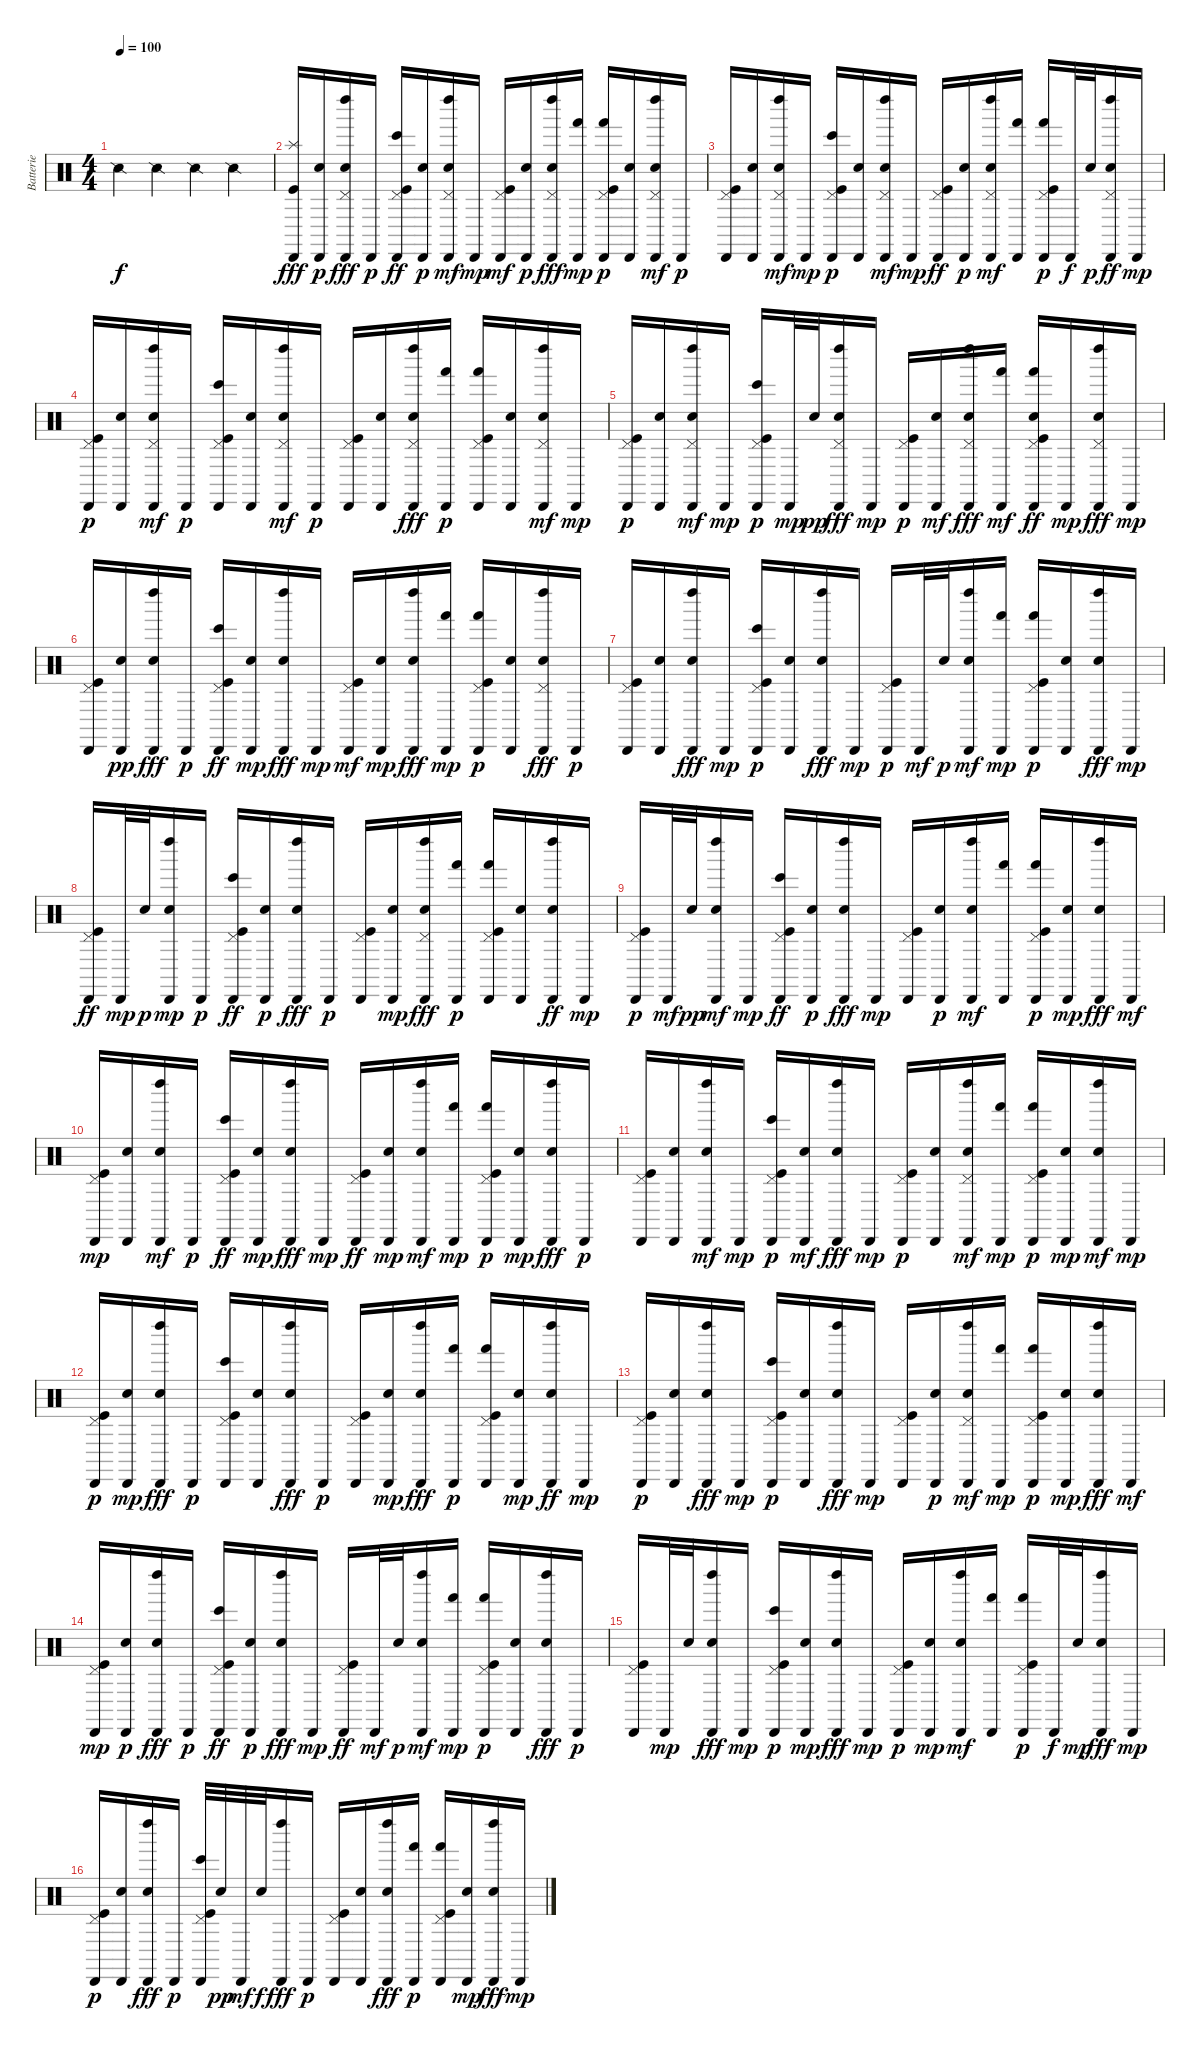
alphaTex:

\track ("Batterie" "Batterie") {instrument percussion}
\staff {score}
\articulation defaults
\ts (4 4)
\tempo 100
\clef neutral
\ks c "Snare (side stick) 2".4{dy f} "Snare (side stick) 2".4 "Snare (side stick) 2".4 "Snare (side stick) 2".4
|
("Kick (hit)" "Cabasa (hit)" "Splash (hit)").16{dy fff} ("Cabasa (hit)" "Electric Snare (hit)").16{dy p} ("Cabasa (hit)" "Pedal Hi-Hat (hit)" "Electric Snare (hit)" "Left Maraca (hit)").16{dy fff} "Cabasa (hit)".16{dy p} ("Cabasa (hit)" "Bongo High (hit)" "Kick (hit)" "Pedal Hi-Hat (hit)").16{dy ff} ("Cabasa (hit)" "Electric Snare (hit)").16{dy p} ("Cabasa (hit)" "Pedal Hi-Hat (hit)" "Left Maraca (hit)" "Electric Snare (hit)").16{dy mf} "Cabasa (hit)".16{dy mp} ("Cabasa (hit)" "Pedal Hi-Hat (hit)" "Kick (hit)").16{dy mf} ("Cabasa (hit)" "Electric Snare (hit)").16{dy p} ("Pedal Hi-Hat (hit)" "Cabasa (hit)" "Electric Snare (hit)" "Left Maraca (hit)").16{dy fff} ("Hand (hit)" "Cabasa (hit)").16{dy mp} ("Hand (hit)" "Kick (hit)" "Pedal Hi-Hat (hit)" "Cabasa (hit)").16{dy p} ("Cabasa (hit)" "Electric Snare (hit)").16 ("Pedal Hi-Hat (hit)" "Cabasa (hit)" "Left Maraca (hit)" "Electric Snare (hit)").16{dy mf} "Cabasa (hit)".16{dy p} |
("Cabasa (hit)" "Kick (hit)" "Pedal Hi-Hat (hit)").16 ("Cabasa (hit)" "Electric Snare (hit)").16 ("Pedal Hi-Hat (hit)" "Cabasa (hit)" "Left Maraca (hit)" "Electric Snare (hit)").16{dy mf} "Cabasa (hit)".16{dy mp} ("Pedal Hi-Hat (hit)" "Bongo High (hit)" "Kick (hit)" "Cabasa (hit)").16{dy p} ("Cabasa (hit)" "Electric Snare (hit)").16 ("Pedal Hi-Hat (hit)" "Cabasa (hit)" "Left Maraca (hit)" "Electric Snare (hit)").16{dy mf} "Cabasa (hit)".16{dy mp} ("Cabasa (hit)" "Kick (hit)" "Pedal Hi-Hat (hit)").16{dy ff} ("Cabasa (hit)" "Electric Snare (hit)").16{dy p} ("Cabasa (hit)" "Left Maraca (hit)" "Pedal Hi-Hat (hit)" "Electric Snare (hit)").16{dy mf} ("Cabasa (hit)" "Hand (hit)").16 ("Pedal Hi-Hat (hit)" "Kick (hit)" "Hand (hit)" "Cabasa (hit)").16{dy p} "Cabasa (hit)".32{dy f} "Electric Snare (hit)".32{dy p} ("Left Maraca (hit)" "Cabasa (hit)" "Pedal Hi-Hat (hit)" "Electric Snare (hit)").16{dy ff} "Cabasa (hit)".16{dy mp} |
("Kick (hit)" "Cabasa (hit)" "Pedal Hi-Hat (hit)").16{dy p} ("Cabasa (hit)" "Electric Snare (hit)").16 ("Left Maraca (hit)" "Cabasa (hit)" "Pedal Hi-Hat (hit)" "Electric Snare (hit)").16{dy mf} "Cabasa (hit)".16{dy p} ("Kick (hit)" "Bongo High (hit)" "Cabasa (hit)" "Pedal Hi-Hat (hit)").16 ("Cabasa (hit)" "Electric Snare (hit)").16 ("Cabasa (hit)" "Left Maraca (hit)" "Pedal Hi-Hat (hit)" "Electric Snare (hit)").16{dy mf} "Cabasa (hit)".16{dy p} ("Kick (hit)" "Pedal Hi-Hat (hit)" "Cabasa (hit)").16 ("Cabasa (hit)" "Electric Snare (hit)").16 ("Pedal Hi-Hat (hit)" "Left Maraca (hit)" "Cabasa (hit)" "Electric Snare (hit)").16{dy fff} ("Hand (hit)" "Cabasa (hit)").16{dy p} ("Hand (hit)" "Kick (hit)" "Pedal Hi-Hat (hit)" "Cabasa (hit)").16 ("Cabasa (hit)" "Electric Snare (hit)").16 ("Left Maraca (hit)" "Cabasa (hit)" "Electric Snare (hit)" "Pedal Hi-Hat (hit)").16{dy mf} "Cabasa (hit)".16{dy mp} |
("Kick (hit)" "Cabasa (hit)" "Pedal Hi-Hat (hit)").16{dy p} ("Cabasa (hit)" "Electric Snare (hit)").16 ("Electric Snare (hit)" "Left Maraca (hit)" "Cabasa (hit)" "Pedal Hi-Hat (hit)").16{dy mf} "Cabasa (hit)".16{dy mp} ("Kick (hit)" "Bongo High (hit)" "Cabasa (hit)" "Pedal Hi-Hat (hit)").16{dy p} "Cabasa (hit)".32{dy mp} "Electric Snare (hit)".32{dy pp} ("Left Maraca (hit)" "Pedal Hi-Hat (hit)" "Cabasa (hit)" "Electric Snare (hit)").16{dy fff} "Cabasa (hit)".16{dy mp} ("Kick (hit)" "Pedal Hi-Hat (hit)" "Cabasa (hit)").16{dy p} ("Cabasa (hit)" "Hand Clap (hit)").16{dy mf} ("Pedal Hi-Hat (hit)" "Cabasa (hit)" "Left Maraca (hit)" "Hand Clap (hit)").16{dy fff} ("Hand (hit)" "Cabasa (hit)").16{dy mf} ("Pedal Hi-Hat (hit)" "Kick (hit)" "Cabasa (hit)" "Electric Snare (hit)" "Hand (hit)").16{dy ff} "Cabasa (hit)".16{dy mp} ("Pedal Hi-Hat (hit)" "Electric Snare (hit)" "Left Maraca (hit)" "Cabasa (hit)").16{dy fff} "Cabasa (hit)".16{dy mp} |
("Pedal Hi-Hat (hit)" "Kick (hit)" "Cabasa (hit)").16 ("Cabasa (hit)" "Electric Snare (hit)").16{dy pp} ("Electric Snare (hit)" "Cabasa (hit)" "Left Maraca (hit)").16{dy fff} "Cabasa (hit)".16{dy p} ("Cabasa (hit)" "Pedal Hi-Hat (hit)" "Bongo High (hit)" "Kick (hit)").16{dy ff} ("Cabasa (hit)" "Electric Snare (hit)").16{dy mp} ("Cabasa (hit)" "Left Maraca (hit)" "Electric Snare (hit)").16{dy fff} "Cabasa (hit)".16{dy mp} ("Cabasa (hit)" "Pedal Hi-Hat (hit)" "Kick (hit)").16{dy mf} ("Cabasa (hit)" "Electric Snare (hit)").16{dy mp} ("Cabasa (hit)" "Electric Snare (hit)" "Left Maraca (hit)").16{dy fff} ("Hand (hit)" "Cabasa (hit)").16{dy mp} ("Hand (hit)" "Kick (hit)" "Pedal Hi-Hat (hit)" "Cabasa (hit)").16{dy p} ("Cabasa (hit)" "Electric Snare (hit)").16 ("Pedal Hi-Hat (hit)" "Cabasa (hit)" "Electric Snare (hit)" "Left Maraca (hit)").16{dy fff} "Cabasa (hit)".16{dy p} |
("Kick (hit)" "Cabasa (hit)" "Pedal Hi-Hat (hit)").16 ("Cabasa (hit)" "Electric Snare (hit)").16 ("Left Maraca (hit)" "Cabasa (hit)" "Electric Snare (hit)").16{dy fff} "Cabasa (hit)".16{dy mp} ("Cabasa (hit)" "Pedal Hi-Hat (hit)" "Kick (hit)" "Bongo High (hit)").16{dy p} ("Cabasa (hit)" "Electric Snare (hit)").16 ("Cabasa (hit)" "Electric Snare (hit)" "Left Maraca (hit)").16{dy fff} "Cabasa (hit)".16{dy mp} ("Cabasa (hit)" "Kick (hit)" "Pedal Hi-Hat (hit)").16{dy p} "Cabasa (hit)".32{dy mf} "Electric Snare (hit)".32{dy p} ("Cabasa (hit)" "Left Maraca (hit)" "Electric Snare (hit)").16{dy mf} ("Hand (hit)" "Cabasa (hit)").16{dy mp} ("Hand (hit)" "Pedal Hi-Hat (hit)" "Kick (hit)" "Cabasa (hit)").16{dy p} ("Cabasa (hit)" "Electric Snare (hit)").16 ("Cabasa (hit)" "Electric Snare (hit)" "Left Maraca (hit)").16{dy fff} "Cabasa (hit)".16{dy mp} |
("Cabasa (hit)" "Pedal Hi-Hat (hit)" "Kick (hit)").16{dy ff} "Cabasa (hit)".32{dy mp} "Electric Snare (hit)".32{dy p} ("Cabasa (hit)" "Left Maraca (hit)" "Electric Snare (hit)").16{dy mp} "Cabasa (hit)".16{dy p} ("Pedal Hi-Hat (hit)" "Kick (hit)" "Cabasa (hit)" "Bongo High (hit)").16{dy ff} ("Cabasa (hit)" "Electric Snare (hit)").16{dy p} ("Left Maraca (hit)" "Cabasa (hit)" "Electric Snare (hit)").16{dy fff} "Cabasa (hit)".16{dy p} ("Kick (hit)" "Pedal Hi-Hat (hit)" "Cabasa (hit)").16 ("Cabasa (hit)" "Electric Snare (hit)").16{dy mp} ("Left Maraca (hit)" "Pedal Hi-Hat (hit)" "Electric Snare (hit)" "Cabasa (hit)").16{dy fff} ("Hand (hit)" "Cabasa (hit)").16{dy p} ("Kick (hit)" "Pedal Hi-Hat (hit)" "Hand (hit)" "Cabasa (hit)").16 ("Cabasa (hit)" "Electric Snare (hit)").16 ("Left Maraca (hit)" "Cabasa (hit)" "Electric Snare (hit)").16{dy ff} "Cabasa (hit)".16{dy mp} |
("Pedal Hi-Hat (hit)" "Kick (hit)" "Cabasa (hit)").16{dy p} "Cabasa (hit)".32{dy mf} "Electric Snare (hit)".32{dy pp} ("Left Maraca (hit)" "Cabasa (hit)" "Electric Snare (hit)").16{dy mf} "Cabasa (hit)".16{dy mp} ("Kick (hit)" "Cabasa (hit)" "Pedal Hi-Hat (hit)" "Bongo High (hit)").16{dy ff} ("Cabasa (hit)" "Electric Snare (hit)").16{dy p} ("Left Maraca (hit)" "Cabasa (hit)" "Electric Snare (hit)").16{dy fff} "Cabasa (hit)".16{dy mp} ("Kick (hit)" "Pedal Hi-Hat (hit)" "Cabasa (hit)").16 ("Cabasa (hit)" "Electric Snare (hit)").16{dy p} ("Left Maraca (hit)" "Cabasa (hit)" "Electric Snare (hit)").16{dy mf} ("Cabasa (hit)" "Hand (hit)").16 ("Hand (hit)" "Kick (hit)" "Pedal Hi-Hat (hit)" "Cabasa (hit)").16{dy p} ("Cabasa (hit)" "Electric Snare (hit)").16{dy mp} ("Cabasa (hit)" "Left Maraca (hit)" "Electric Snare (hit)").16{dy fff} "Cabasa (hit)".16{dy mf} |
("Pedal Hi-Hat (hit)" "Kick (hit)" "Cabasa (hit)").16{dy mp} ("Electric Snare (hit)" "Cabasa (hit)").16 ("Left Maraca (hit)" "Cabasa (hit)" "Electric Snare (hit)").16{dy mf} "Cabasa (hit)".16{dy p} ("Pedal Hi-Hat (hit)" "Kick (hit)" "Cabasa (hit)" "Bongo High (hit)").16{dy ff} ("Cabasa (hit)" "Electric Snare (hit)").16{dy mp} ("Left Maraca (hit)" "Electric Snare (hit)" "Cabasa (hit)").16{dy fff} "Cabasa (hit)".16{dy mp} ("Kick (hit)" "Cabasa (hit)" "Pedal Hi-Hat (hit)").16{dy ff} ("Cabasa (hit)" "Electric Snare (hit)").16{dy mp} ("Left Maraca (hit)" "Cabasa (hit)" "Electric Snare (hit)").16{dy mf} ("Hand (hit)" "Cabasa (hit)").16{dy mp} ("Kick (hit)" "Pedal Hi-Hat (hit)" "Hand (hit)" "Cabasa (hit)").16{dy p} ("Cabasa (hit)" "Electric Snare (hit)").16{dy mp} ("Left Maraca (hit)" "Cabasa (hit)" "Electric Snare (hit)").16{dy fff} "Cabasa (hit)".16{dy p} |
("Pedal Hi-Hat (hit)" "Kick (hit)" "Cabasa (hit)").16 ("Cabasa (hit)" "Electric Snare (hit)").16 ("Cabasa (hit)" "Left Maraca (hit)" "Electric Snare (hit)").16{dy mf} "Cabasa (hit)".16{dy mp} ("Bongo High (hit)" "Cabasa (hit)" "Kick (hit)" "Pedal Hi-Hat (hit)").16{dy p} ("Electric Snare (hit)" "Cabasa (hit)").16{dy mf} ("Electric Snare (hit)" "Cabasa (hit)" "Left Maraca (hit)").16{dy fff} "Cabasa (hit)".16{dy mp} ("Cabasa (hit)" "Pedal Hi-Hat (hit)" "Kick (hit)").16{dy p} ("Cabasa (hit)" "Electric Snare (hit)").16 ("Cabasa (hit)" "Left Maraca (hit)" "Electric Snare (hit)" "Pedal Hi-Hat (hit)").16{dy mf} ("Hand (hit)" "Cabasa (hit)").16{dy mp} ("Hand (hit)" "Kick (hit)" "Pedal Hi-Hat (hit)" "Cabasa (hit)").16{dy p} ("Cabasa (hit)" "Electric Snare (hit)").16{dy mp} ("Left Maraca (hit)" "Cabasa (hit)" "Electric Snare (hit)").16{dy mf} "Cabasa (hit)".16{dy mp} |
("Pedal Hi-Hat (hit)" "Kick (hit)" "Cabasa (hit)").16{dy p} ("Cabasa (hit)" "Electric Snare (hit)").16{dy mp} ("Cabasa (hit)" "Left Maraca (hit)" "Electric Snare (hit)").16{dy fff} "Cabasa (hit)".16{dy p} ("Pedal Hi-Hat (hit)" "Bongo High (hit)" "Cabasa (hit)" "Kick (hit)").16 ("Cabasa (hit)" "Electric Snare (hit)").16 ("Cabasa (hit)" "Left Maraca (hit)" "Electric Snare (hit)").16{dy fff} "Cabasa (hit)".16{dy p} ("Pedal Hi-Hat (hit)" "Kick (hit)" "Cabasa (hit)").16 ("Cabasa (hit)" "Electric Snare (hit)").16{dy mp} ("Left Maraca (hit)" "Electric Snare (hit)" "Cabasa (hit)").16{dy fff} ("Hand (hit)" "Cabasa (hit)").16{dy p} ("Pedal Hi-Hat (hit)" "Hand (hit)" "Kick (hit)" "Cabasa (hit)").16 ("Cabasa (hit)" "Electric Snare (hit)").16{dy mp} ("Left Maraca (hit)" "Cabasa (hit)" "Electric Snare (hit)").16{dy ff} "Cabasa (hit)".16{dy mp} |
("Pedal Hi-Hat (hit)" "Kick (hit)" "Cabasa (hit)").16{dy p} ("Cabasa (hit)" "Electric Snare (hit)").16 ("Left Maraca (hit)" "Cabasa (hit)" "Electric Snare (hit)").16{dy fff} "Cabasa (hit)".16{dy mp} ("Pedal Hi-Hat (hit)" "Cabasa (hit)" "Kick (hit)" "Bongo High (hit)").16{dy p} ("Cabasa (hit)" "Electric Snare (hit)").16 ("Cabasa (hit)" "Electric Snare (hit)" "Left Maraca (hit)").16{dy fff} "Cabasa (hit)".16{dy mp} ("Pedal Hi-Hat (hit)" "Kick (hit)" "Cabasa (hit)").16 ("Cabasa (hit)" "Electric Snare (hit)").16{dy p} ("Pedal Hi-Hat (hit)" "Left Maraca (hit)" "Cabasa (hit)" "Electric Snare (hit)").16{dy mf} ("Hand (hit)" "Cabasa (hit)").16{dy mp} ("Pedal Hi-Hat (hit)" "Hand (hit)" "Cabasa (hit)" "Kick (hit)").16{dy p} ("Cabasa (hit)" "Electric Snare (hit)").16{dy mp} ("Cabasa (hit)" "Left Maraca (hit)" "Electric Snare (hit)").16{dy fff} "Cabasa (hit)".16{dy mf} |
("Pedal Hi-Hat (hit)" "Kick (hit)" "Cabasa (hit)").16{dy mp} ("Cabasa (hit)" "Electric Snare (hit)").16{dy p} ("Electric Snare (hit)" "Cabasa (hit)" "Left Maraca (hit)").16{dy fff} "Cabasa (hit)".16{dy p} ("Cabasa (hit)" "Bongo High (hit)" "Kick (hit)" "Pedal Hi-Hat (hit)").16{dy ff} ("Cabasa (hit)" "Electric Snare (hit)").16{dy p} ("Electric Snare (hit)" "Cabasa (hit)" "Left Maraca (hit)").16{dy fff} "Cabasa (hit)".16{dy mp} ("Cabasa (hit)" "Kick (hit)" "Pedal Hi-Hat (hit)").16{dy ff} "Cabasa (hit)".32{dy mf} "Electric Snare (hit)".32{dy p} ("Left Maraca (hit)" "Cabasa (hit)" "Electric Snare (hit)").16{dy mf} ("Hand (hit)" "Cabasa (hit)").16{dy mp} ("Kick (hit)" "Hand (hit)" "Pedal Hi-Hat (hit)" "Cabasa (hit)").16{dy p} ("Cabasa (hit)" "Electric Snare (hit)").16 ("Left Maraca (hit)" "Electric Snare (hit)" "Cabasa (hit)").16{dy fff} "Cabasa (hit)".16{dy p} |
("Pedal Hi-Hat (hit)" "Cabasa (hit)" "Kick (hit)").16 "Cabasa (hit)".32{dy mp} "Electric Snare (hit)".32 ("Electric Snare (hit)" "Left Maraca (hit)" "Cabasa (hit)").16{dy fff} "Cabasa (hit)".16{dy mp} ("Bongo High (hit)" "Pedal Hi-Hat (hit)" "Kick (hit)" "Cabasa (hit)").16{dy p} ("Cabasa (hit)" "Electric Snare (hit)").16{dy mp} ("Cabasa (hit)" "Electric Snare (hit)" "Left Maraca (hit)").16{dy fff} "Cabasa (hit)".16{dy mp} ("Cabasa (hit)" "Pedal Hi-Hat (hit)" "Kick (hit)").16{dy p} ("Cabasa (hit)" "Electric Snare (hit)").16{dy mp} ("Cabasa (hit)" "Left Maraca (hit)" "Electric Snare (hit)").16{dy mf} ("Cabasa (hit)" "Hand (hit)").16 ("Pedal Hi-Hat (hit)" "Kick (hit)" "Hand (hit)" "Cabasa (hit)").16{dy p} "Cabasa (hit)".32{dy f} "Electric Snare (hit)".32{dy mp} ("Cabasa (hit)" "Electric Snare (hit)" "Left Maraca (hit)").16{dy fff} "Cabasa (hit)".16{dy mp} |
("Kick (hit)" "Pedal Hi-Hat (hit)" "Cabasa (hit)").16{dy p} ("Cabasa (hit)" "Electric Snare (hit)").16 ("Cabasa (hit)" "Electric Snare (hit)" "Left Maraca (hit)").16{dy fff} "Cabasa (hit)".16{dy p} ("Kick (hit)" "Pedal Hi-Hat (hit)" "Cabasa (hit)" "Bongo High (hit)").32 "Electric Snare (hit)".32{dy pp} "Cabasa (hit)".32{dy mf} "Electric Snare (hit)".32{dy f} ("Cabasa (hit)" "Left Maraca (hit)").16{dy fff} "Cabasa (hit)".16{dy p} ("Kick (hit)" "Pedal Hi-Hat (hit)" "Cabasa (hit)").16 ("Cabasa (hit)" "Electric Snare (hit)").16 ("Electric Snare (hit)" "Left Maraca (hit)" "Cabasa (hit)").16{dy fff} ("Hand (hit)" "Cabasa (hit)").16{dy p} ("Pedal Hi-Hat (hit)" "Hand (hit)" "Kick (hit)" "Cabasa (hit)").16 ("Cabasa (hit)" "Electric Snare (hit)").16{dy mp} ("Electric Snare (hit)" "Cabasa (hit)" "Left Maraca (hit)").16{dy fff} "Cabasa (hit)".16{dy mp}
